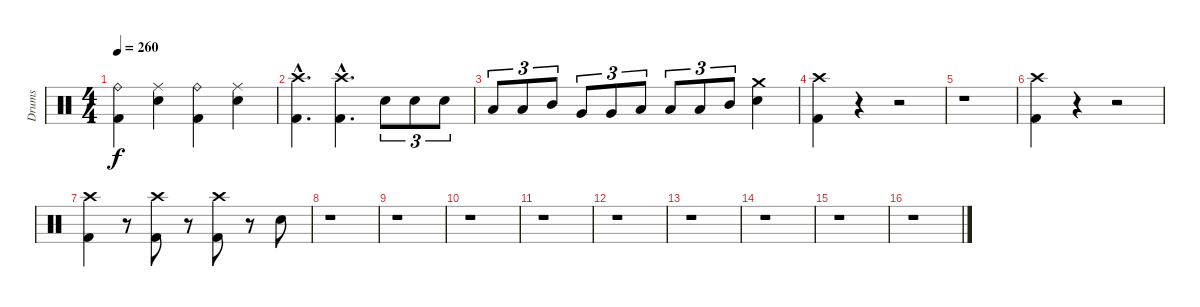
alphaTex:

\track ("Drums" "Drums") {instrument percussion}
\staff {score}
\articulation defaults
\ts (4 4)
\tempo 260
\clef neutral
\ks c
("Ride (bell)" "Kick (hit) 2").4{dy f} ("Ride (middle)" "Electric Snare (hit)").4 ("Ride (bell)" "Kick (hit) 2").4 ("Ride (middle)" "Electric Snare (hit)").4 |
("Crash high (hit)"{hac} "Kick (hit) 2"{hac}).4{d} ("Crash high (hit)"{hac} "Kick (hit) 2"{hac}).4{d} "Electric Snare (hit)".8{tu (3 2)} "Electric Snare (hit)".8{tu (3 2)} "Electric Snare (hit)".8{tu (3 2)} |
"Low Tom (hit)".8{tu (3 2)} "Low Tom (hit)".8{tu (3 2)} "Mid Tom (hit)".8{tu (3 2)} "Very Low Tom (hit)".8{tu (3 2)} "Very Low Tom (hit)".8{tu (3 2)} "Low Tom (hit)".8{tu (3 2)} "Low Tom (hit)".8{tu (3 2)} "Low Tom (hit)".8{tu (3 2)} "Mid Tom (hit)".8{tu (3 2)} ("Crash medium (hit)" "Electric Snare (hit)").4 |
("Crash high (hit)" "Kick (hit) 2").4 r.4 r.2 |
r.1 |
("Crash high (hit)" "Kick (hit) 2").4 r.4 r.2 |
("Crash high (hit)" "Kick (hit) 2").4 r.8 ("Crash high (hit)" "Kick (hit) 2").8 r.8 ("Crash high (hit)" "Kick (hit) 2").8 r.8 "Electric Snare (hit)".8 |
r.1 |
r.1 |
r.1 |
r.1 |
r.1 |
r.1 |
r.1 |
r.1 |
r.1
